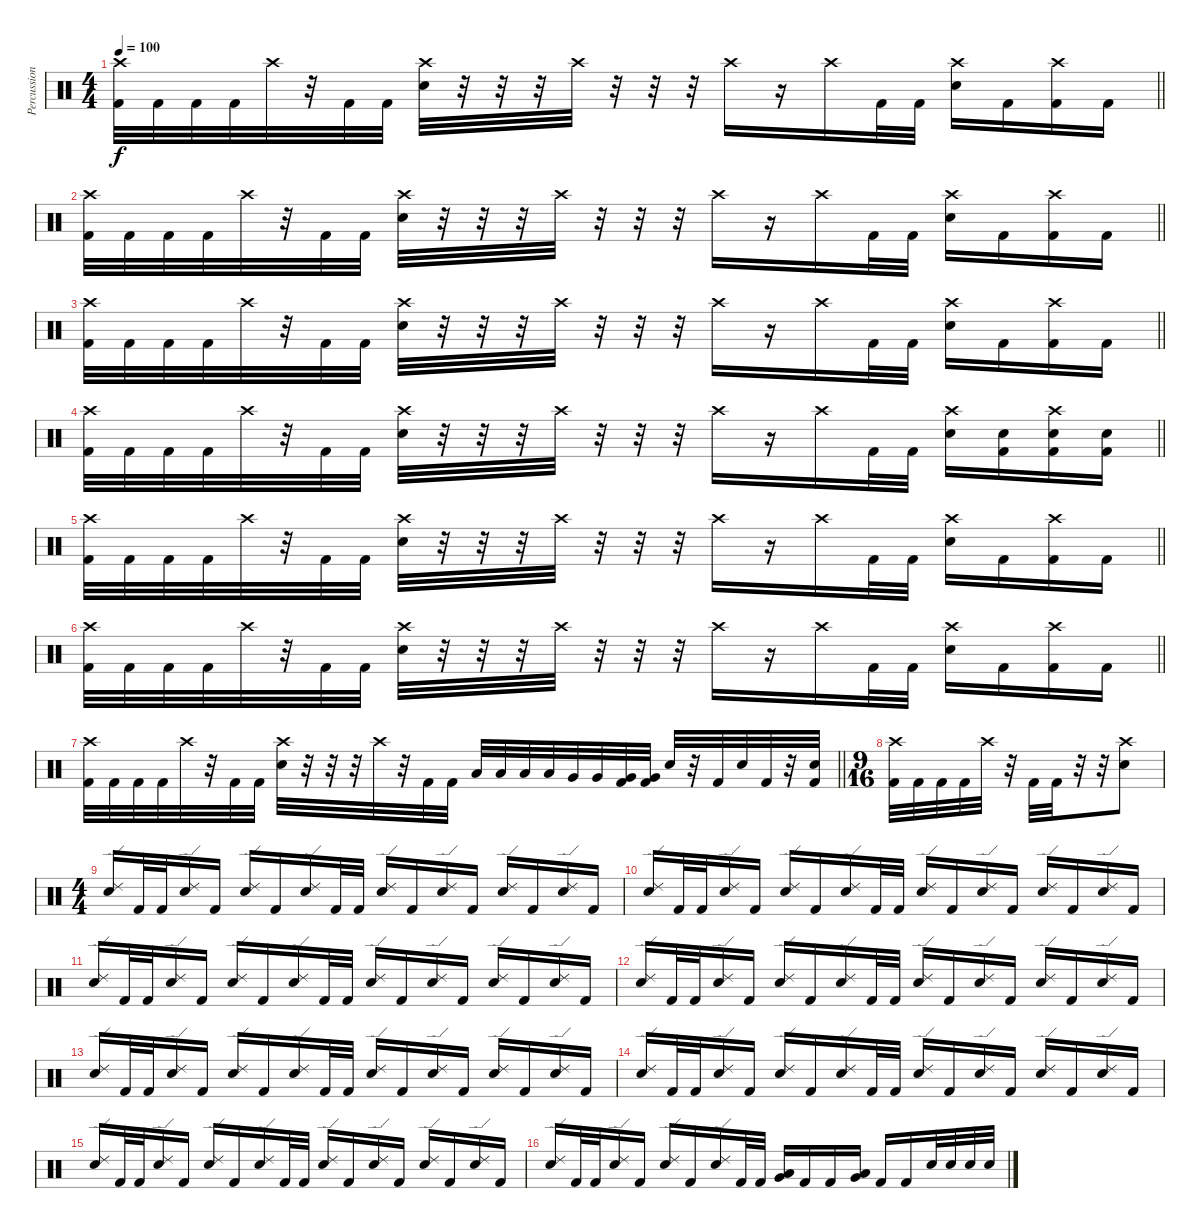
\track ("Percussion" "Percussion") {instrument percussion}
\staff {score}
\articulation defaults
\ts (4 4)
\tempo 100
\clef neutral
\barLineRight lightlight
\ks c
("Crash high (hit)" "Kick (hit) 2").32{dy f} "Kick (hit) 2".32 "Kick (hit) 2".32 "Kick (hit) 2".32 "Crash high (hit)".32 r.32 "Kick (hit) 2".32 "Kick (hit) 2".32 ("Crash high (hit)" "Snare (hit) 2").32 r.32 r.32 r.32 "Crash high (hit)".32 r.32 r.32 r.32 "Crash high (hit)".16 r.16 "Crash high (hit)".16 "Kick (hit) 2".32 "Kick (hit) 2".32 ("Crash high (hit)" "Snare (hit) 2").16 "Kick (hit) 2".16 ("Crash high (hit)" "Kick (hit) 2").16 "Kick (hit) 2".16 |
\barLineRight lightlight
("Crash high (hit)" "Kick (hit) 2").32 "Kick (hit) 2".32 "Kick (hit) 2".32 "Kick (hit) 2".32 "Crash high (hit)".32 r.32 "Kick (hit) 2".32 "Kick (hit) 2".32 ("Crash high (hit)" "Snare (hit) 2").32 r.32 r.32 r.32 "Crash high (hit)".32 r.32 r.32 r.32 "Crash high (hit)".16 r.16 "Crash high (hit)".16 "Kick (hit) 2".32 "Kick (hit) 2".32 ("Crash high (hit)" "Snare (hit) 2").16 "Kick (hit) 2".16 ("Crash high (hit)" "Kick (hit) 2").16 "Kick (hit) 2".16 |
\barLineRight lightlight
("Crash high (hit)" "Kick (hit) 2").32 "Kick (hit) 2".32 "Kick (hit) 2".32 "Kick (hit) 2".32 "Crash high (hit)".32 r.32 "Kick (hit) 2".32 "Kick (hit) 2".32 ("Crash high (hit)" "Snare (hit) 2").32 r.32 r.32 r.32 "Crash high (hit)".32 r.32 r.32 r.32 "Crash high (hit)".16 r.16 "Crash high (hit)".16 "Kick (hit) 2".32 "Kick (hit) 2".32 ("Crash high (hit)" "Snare (hit) 2").16 "Kick (hit) 2".16 ("Crash high (hit)" "Kick (hit) 2").16 "Kick (hit) 2".16 |
\barLineRight lightlight
("Crash high (hit)" "Kick (hit) 2").32 "Kick (hit) 2".32 "Kick (hit) 2".32 "Kick (hit) 2".32 "Crash high (hit)".32 r.32 "Kick (hit) 2".32 "Kick (hit) 2".32 ("Crash high (hit)" "Snare (hit) 2").32 r.32 r.32 r.32 "Crash high (hit)".32 r.32 r.32 r.32 "Crash high (hit)".16 r.16 "Crash high (hit)".16 "Kick (hit) 2".32 "Kick (hit) 2".32 ("Crash high (hit)" "Snare (hit) 2").16 ("Snare (hit) 2" "Kick (hit) 2").16 ("Crash high (hit)" "Snare (hit) 2" "Kick (hit) 2").16 ("Snare (hit) 2" "Kick (hit) 2").16 |
\barLineRight lightlight
("Crash high (hit)" "Kick (hit) 2").32 "Kick (hit) 2".32 "Kick (hit) 2".32 "Kick (hit) 2".32 "Crash high (hit)".32 r.32 "Kick (hit) 2".32 "Kick (hit) 2".32 ("Crash high (hit)" "Snare (hit) 2").32 r.32 r.32 r.32 "Crash high (hit)".32 r.32 r.32 r.32 "Crash high (hit)".16 r.16 "Crash high (hit)".16 "Kick (hit) 2".32 "Kick (hit) 2".32 ("Crash high (hit)" "Snare (hit) 2").16 "Kick (hit) 2".16 ("Crash high (hit)" "Kick (hit) 2").16 "Kick (hit) 2".16 |
\barLineRight lightlight
("Crash high (hit)" "Kick (hit) 2").32 "Kick (hit) 2".32 "Kick (hit) 2".32 "Kick (hit) 2".32 "Crash high (hit)".32 r.32 "Kick (hit) 2".32 "Kick (hit) 2".32 ("Crash high (hit)" "Snare (hit) 2").32 r.32 r.32 r.32 "Crash high (hit)".32 r.32 r.32 r.32 "Crash high (hit)".16 r.16 "Crash high (hit)".16 "Kick (hit) 2".32 "Kick (hit) 2".32 ("Crash high (hit)" "Snare (hit) 2").16 "Kick (hit) 2".16 ("Crash high (hit)" "Kick (hit) 2").16 "Kick (hit) 2".16 |
\barLineRight lightlight
("Crash high (hit)" "Kick (hit) 2").32 "Kick (hit) 2".32 "Kick (hit) 2".32 "Kick (hit) 2".32 "Crash high (hit)".32 r.32 "Kick (hit) 2".32 "Kick (hit) 2".32 ("Crash high (hit)" "Snare (hit) 2").32 r.32 r.32 r.32 "Crash high (hit)".32 r.32 "Kick (hit) 2".32 "Kick (hit) 2".32 "Low Tom (hit)".32 "Low Tom (hit)".32 "Low Tom (hit)".32 "Low Tom (hit)".32 "Very Low Tom (hit)".32 "Very Low Tom (hit)".32 ("Very Low Tom (hit)" "Kick (hit) 2").32 ("Very Low Tom (hit)" "Kick (hit) 2").32 "Snare (hit) 2".32 r.32 "Kick (hit) 2".32 "Snare (hit) 2".32 "Kick (hit) 2".32 r.32 ("Snare (hit) 2" "Kick (hit) 2").32 |
\ts (9 16)
("Crash high (hit)" "Kick (hit) 2").32 "Kick (hit) 2".32 "Kick (hit) 2".32 "Kick (hit) 2".32 "Crash high (hit)".32 r.32 "Kick (hit) 2".32 "Kick (hit) 2".32 r.32 r.32 ("Crash high (hit)" "Snare (hit) 2").8 |
\ts (4 4)
("Ride (edge) 2" "Snare (hit) 2").16 "Kick (hit) 2".32 "Kick (hit) 2".32 ("Ride (edge) 2" "Snare (hit) 2").16 "Kick (hit) 2".16 ("Ride (edge) 2" "Snare (hit) 2").16 "Kick (hit) 2".16 ("Ride (edge) 2" "Snare (hit) 2").16 "Kick (hit) 2".32 "Kick (hit) 2".32 ("Ride (edge) 2" "Snare (hit) 2").16 "Kick (hit) 2".16 ("Ride (edge) 2" "Snare (hit) 2").16 "Kick (hit) 2".16 ("Ride (edge) 2" "Snare (hit) 2").16 "Kick (hit) 2".16 ("Ride (edge) 2" "Snare (hit) 2").16 "Kick (hit) 2".16 |
("Ride (edge) 2" "Snare (hit) 2").16 "Kick (hit) 2".32 "Kick (hit) 2".32 ("Ride (edge) 2" "Snare (hit) 2").16 "Kick (hit) 2".16 ("Ride (edge) 2" "Snare (hit) 2").16 "Kick (hit) 2".16 ("Ride (edge) 2" "Snare (hit) 2").16 "Kick (hit) 2".32 "Kick (hit) 2".32 ("Ride (edge) 2" "Snare (hit) 2").16 "Kick (hit) 2".16 ("Ride (edge) 2" "Snare (hit) 2").16 "Kick (hit) 2".16 ("Ride (edge) 2" "Snare (hit) 2").16 "Kick (hit) 2".16 ("Ride (edge) 2" "Snare (hit) 2").16 "Kick (hit) 2".16 |
("Ride (edge) 2" "Snare (hit) 2").16 "Kick (hit) 2".32 "Kick (hit) 2".32 ("Ride (edge) 2" "Snare (hit) 2").16 "Kick (hit) 2".16 ("Ride (edge) 2" "Snare (hit) 2").16 "Kick (hit) 2".16 ("Ride (edge) 2" "Snare (hit) 2").16 "Kick (hit) 2".32 "Kick (hit) 2".32 ("Ride (edge) 2" "Snare (hit) 2").16 "Kick (hit) 2".16 ("Ride (edge) 2" "Snare (hit) 2").16 "Kick (hit) 2".16 ("Ride (edge) 2" "Snare (hit) 2").16 "Kick (hit) 2".16 ("Ride (edge) 2" "Snare (hit) 2").16 "Kick (hit) 2".16 |
("Ride (edge) 2" "Snare (hit) 2").16 "Kick (hit) 2".32 "Kick (hit) 2".32 ("Ride (edge) 2" "Snare (hit) 2").16 "Kick (hit) 2".16 ("Ride (edge) 2" "Snare (hit) 2").16 "Kick (hit) 2".16 ("Ride (edge) 2" "Snare (hit) 2").16 "Kick (hit) 2".32 "Kick (hit) 2".32 ("Ride (edge) 2" "Snare (hit) 2").16 "Kick (hit) 2".16 ("Ride (edge) 2" "Snare (hit) 2").16 "Kick (hit) 2".16 ("Ride (edge) 2" "Snare (hit) 2").16 "Kick (hit) 2".16 ("Ride (edge) 2" "Snare (hit) 2").16 "Kick (hit) 2".16 |
("Ride (edge) 2" "Snare (hit) 2").16 "Kick (hit) 2".32 "Kick (hit) 2".32 ("Ride (edge) 2" "Snare (hit) 2").16 "Kick (hit) 2".16 ("Ride (edge) 2" "Snare (hit) 2").16 "Kick (hit) 2".16 ("Ride (edge) 2" "Snare (hit) 2").16 "Kick (hit) 2".32 "Kick (hit) 2".32 ("Ride (edge) 2" "Snare (hit) 2").16 "Kick (hit) 2".16 ("Ride (edge) 2" "Snare (hit) 2").16 "Kick (hit) 2".16 ("Ride (edge) 2" "Snare (hit) 2").16 "Kick (hit) 2".16 ("Ride (edge) 2" "Snare (hit) 2").16 "Kick (hit) 2".16 |
("Ride (edge) 2" "Snare (hit) 2").16 "Kick (hit) 2".32 "Kick (hit) 2".32 ("Ride (edge) 2" "Snare (hit) 2").16 "Kick (hit) 2".16 ("Ride (edge) 2" "Snare (hit) 2").16 "Kick (hit) 2".16 ("Ride (edge) 2" "Snare (hit) 2").16 "Kick (hit) 2".32 "Kick (hit) 2".32 ("Ride (edge) 2" "Snare (hit) 2").16 "Kick (hit) 2".16 ("Ride (edge) 2" "Snare (hit) 2").16 "Kick (hit) 2".16 ("Ride (edge) 2" "Snare (hit) 2").16 "Kick (hit) 2".16 ("Ride (edge) 2" "Snare (hit) 2").16 "Kick (hit) 2".16 |
("Ride (edge) 2" "Snare (hit) 2").16 "Kick (hit) 2".32 "Kick (hit) 2".32 ("Ride (edge) 2" "Snare (hit) 2").16 "Kick (hit) 2".16 ("Ride (edge) 2" "Snare (hit) 2").16 "Kick (hit) 2".16 ("Ride (edge) 2" "Snare (hit) 2").16 "Kick (hit) 2".32 "Kick (hit) 2".32 ("Ride (edge) 2" "Snare (hit) 2").16 "Kick (hit) 2".16 ("Ride (edge) 2" "Snare (hit) 2").16 "Kick (hit) 2".16 ("Ride (edge) 2" "Snare (hit) 2").16 "Kick (hit) 2".16 ("Ride (edge) 2" "Snare (hit) 2").16 "Kick (hit) 2".16 |
("Ride (edge) 2" "Snare (hit) 2").16 "Kick (hit) 2".32 "Kick (hit) 2".32 ("Ride (edge) 2" "Snare (hit) 2").16 "Kick (hit) 2".16 ("Ride (edge) 2" "Snare (hit) 2").16 "Kick (hit) 2".16 ("Ride (edge) 2" "Snare (hit) 2").16 "Kick (hit) 2".32 "Kick (hit) 2".32 ("Low Tom (hit)" "Very Low Tom (hit)").16 "Kick (hit) 2".16 "Kick (hit) 2".16 ("Very Low Tom (hit)" "Low Floor Tom (hit)").16 "Kick (hit) 2".16 "Kick (hit) 2".16 "Snare (hit) 2".32 "Snare (hit) 2".32 "Snare (hit) 2".32 "Snare (hit) 2".32
